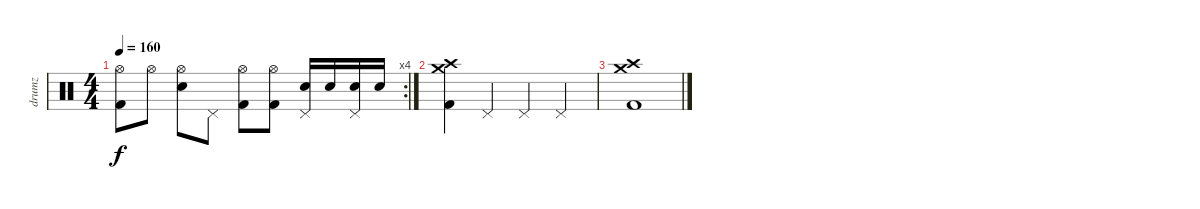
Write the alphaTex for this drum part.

\track ("drumz" "drumz") {instrument percussion}
\staff {score}
\articulation defaults
\rc 4
\ts (4 4)
\tempo 160
\clef neutral
\ks c
("Hi-Hat (open)" "Kick (hit) 2").8{dy f} "Hi-Hat (open)".8 ("Hi-Hat (open)" "Snare (hit) 2").8 "Pedal Hi-Hat (hit)".8 ("Hi-Hat (open)" "Kick (hit) 2").8 ("Hi-Hat (open)" "Kick (hit) 2").8 ("Pedal Hi-Hat (hit)" "Snare (hit) 2").16 "Snare (hit) 2".16 ("Pedal Hi-Hat (hit)" "Snare (hit) 2").16 "Snare (hit) 2".16 |
("Crash medium (hit)" "Crash high (hit)" "Kick (hit) 2").4 "Pedal Hi-Hat (hit)".4 "Pedal Hi-Hat (hit)".4 "Pedal Hi-Hat (hit)".4 |
("Crash medium (hit)" "Crash high (hit)" "Kick (hit) 2").1
